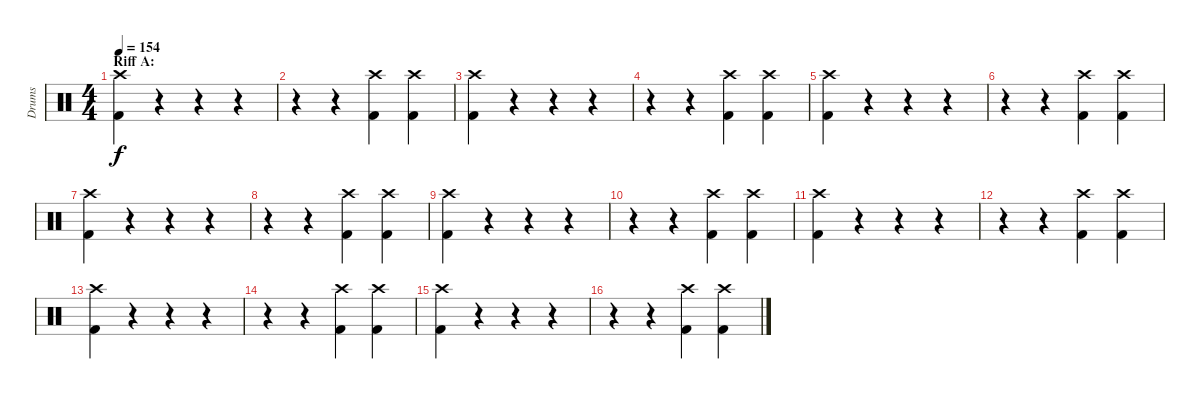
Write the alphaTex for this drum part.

\track ("Drums" "Drums") {instrument percussion}
\staff {score}
\articulation defaults
\ts (4 4)
\section ("" "Riff A:")
\tempo 154
\clef neutral
\ks c
("Crash high (hit)" "Kick (hit) 2").4{dy f} r.4 r.4 r.4 |
r.4 r.4 ("Crash high (hit)" "Kick (hit) 2").4 ("Crash high (hit)" "Kick (hit) 2").4 |
("Crash high (hit)" "Kick (hit) 2").4 r.4 r.4 r.4 |
r.4 r.4 ("Crash high (hit)" "Kick (hit) 2").4 ("Crash high (hit)" "Kick (hit) 2").4 |
("Crash high (hit)" "Kick (hit) 2").4 r.4 r.4 r.4 |
r.4 r.4 ("Crash high (hit)" "Kick (hit) 2").4 ("Crash high (hit)" "Kick (hit) 2").4 |
("Crash high (hit)" "Kick (hit) 2").4 r.4 r.4 r.4 |
r.4 r.4 ("Crash high (hit)" "Kick (hit) 2").4 ("Crash high (hit)" "Kick (hit) 2").4 |
("Crash high (hit)" "Kick (hit) 2").4 r.4 r.4 r.4 |
r.4 r.4 ("Crash high (hit)" "Kick (hit) 2").4 ("Crash high (hit)" "Kick (hit) 2").4 |
("Crash high (hit)" "Kick (hit) 2").4 r.4 r.4 r.4 |
r.4 r.4 ("Crash high (hit)" "Kick (hit) 2").4 ("Crash high (hit)" "Kick (hit) 2").4 |
("Crash high (hit)" "Kick (hit) 2").4 r.4 r.4 r.4 |
r.4 r.4 ("Crash high (hit)" "Kick (hit) 2").4 ("Crash high (hit)" "Kick (hit) 2").4 |
("Crash high (hit)" "Kick (hit) 2").4 r.4 r.4 r.4 |
r.4 r.4 ("Crash high (hit)" "Kick (hit) 2").4 ("Crash high (hit)" "Kick (hit) 2").4
